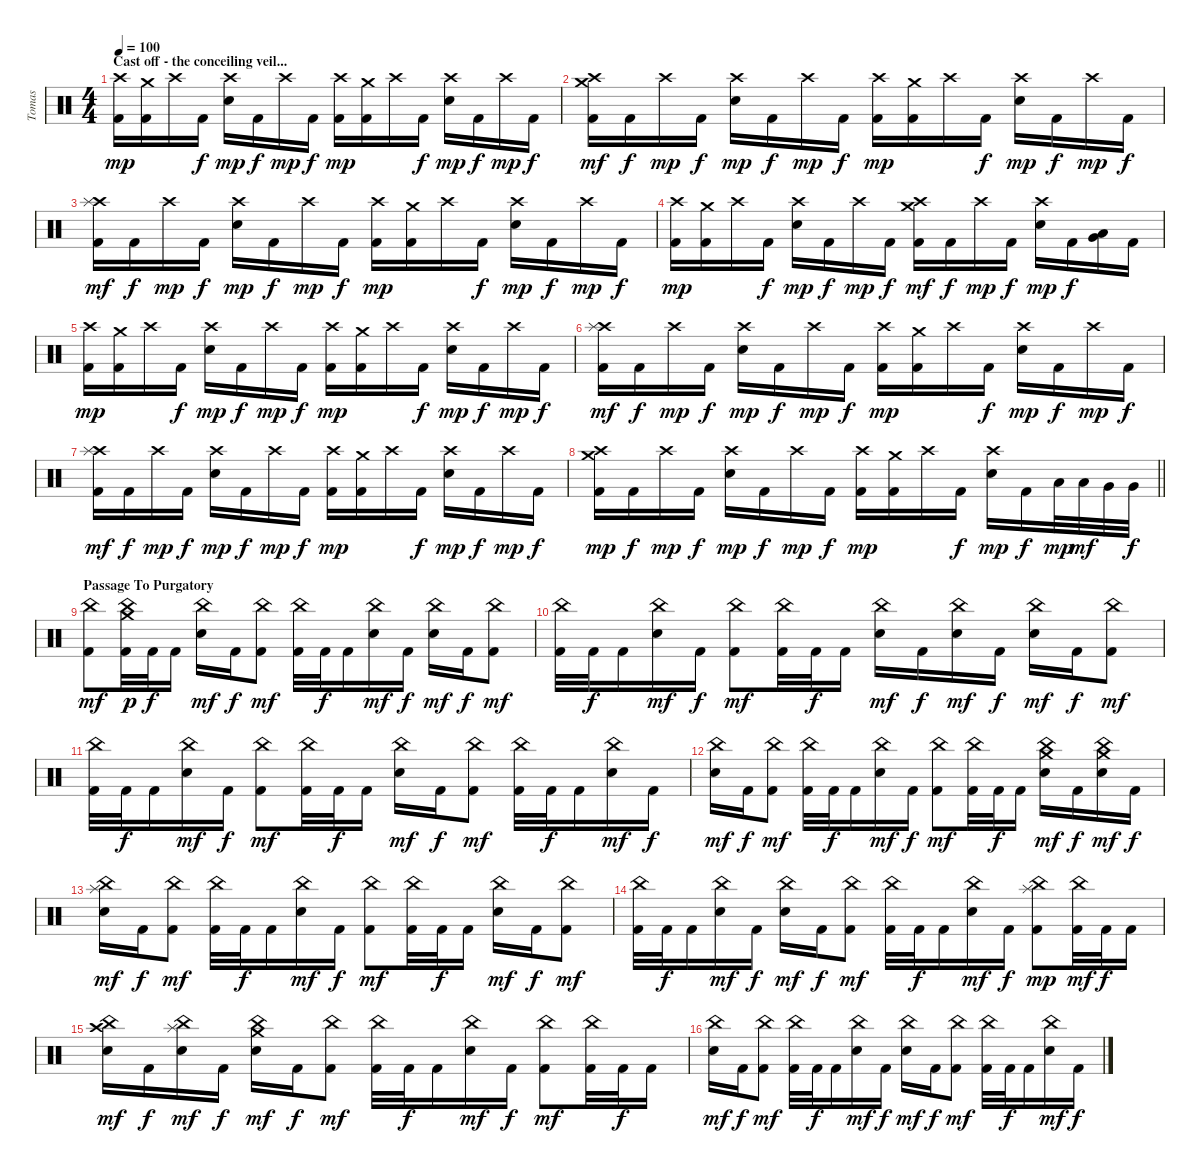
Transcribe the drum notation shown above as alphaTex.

\track ("Tomas" "Tomas") {instrument percussion}
\staff {score}
\articulation defaults
\ts (4 4)
\section ("" "Cast off - the conceiling veil...")
\tempo 100
\clef neutral
\ks c
("Crash high (hit)" "Kick (hit) 2").16{dy mp} ("Crash medium (hit)" "Kick (hit) 2").16 "Crash high (hit)".16 "Kick (hit) 2".16{dy f} ("Crash high (hit)" "Electric Snare (hit)").16{dy mp} "Kick (hit) 2".16{dy f} "Crash high (hit)".16{dy mp} "Kick (hit) 2".16{dy f} ("Crash high (hit)" "Kick (hit) 2").16{dy mp} ("Crash medium (hit)" "Kick (hit) 2").16 "Crash high (hit)".16 "Kick (hit) 2".16{dy f} ("Crash high (hit)" "Electric Snare (hit)").16{dy mp} "Kick (hit) 2".16{dy f} "Crash high (hit)".16{dy mp} "Kick (hit) 2".16{dy f} |
("Crash high (hit)" "Crash medium (hit)" "Kick (hit) 2").16{dy mf} "Kick (hit) 2".16{dy f} "Crash high (hit)".16{dy mp} "Kick (hit) 2".16{dy f} ("Crash high (hit)" "Electric Snare (hit)").16{dy mp} "Kick (hit) 2".16{dy f} "Crash high (hit)".16{dy mp} "Kick (hit) 2".16{dy f} ("Crash high (hit)" "Kick (hit) 2").16{dy mp} ("Crash medium (hit)" "Kick (hit) 2").16 "Crash high (hit)".16 "Kick (hit) 2".16{dy f} ("Crash high (hit)" "Electric Snare (hit)").16{dy mp} "Kick (hit) 2".16{dy f} "Crash high (hit)".16{dy mp} "Kick (hit) 2".16{dy f} |
("Crash high (hit)" "Splash (hit)" "Kick (hit) 2").16{dy mf} "Kick (hit) 2".16{dy f} "Crash high (hit)".16{dy mp} "Kick (hit) 2".16{dy f} ("Crash high (hit)" "Electric Snare (hit)").16{dy mp} "Kick (hit) 2".16{dy f} "Crash high (hit)".16{dy mp} "Kick (hit) 2".16{dy f} ("Crash high (hit)" "Kick (hit) 2").16{dy mp} ("Crash medium (hit)" "Kick (hit) 2").16 "Crash high (hit)".16 "Kick (hit) 2".16{dy f} ("Crash high (hit)" "Electric Snare (hit)").16{dy mp} "Kick (hit) 2".16{dy f} "Crash high (hit)".16{dy mp} "Kick (hit) 2".16{dy f} |
("Crash high (hit)" "Kick (hit) 2").16{dy mp} ("Crash medium (hit)" "Kick (hit) 2").16 "Crash high (hit)".16 "Kick (hit) 2".16{dy f} ("Crash high (hit)" "Electric Snare (hit)").16{dy mp} "Kick (hit) 2".16{dy f} "Crash high (hit)".16{dy mp} "Kick (hit) 2".16{dy f} ("Crash high (hit)" "Crash medium (hit)" "Kick (hit) 2").16{dy mf} "Kick (hit) 2".16{dy f} "Crash high (hit)".16{dy mp} "Kick (hit) 2".16{dy f} ("Crash high (hit)" "Electric Snare (hit)").16{dy mp} "Kick (hit) 2".16{dy f} ("Low Tom (hit)" "Very Low Tom (hit)").16 "Kick (hit) 2".16 |
("Crash high (hit)" "Kick (hit) 2").16{dy mp} ("Crash medium (hit)" "Kick (hit) 2").16 "Crash high (hit)".16 "Kick (hit) 2".16{dy f} ("Crash high (hit)" "Electric Snare (hit)").16{dy mp} "Kick (hit) 2".16{dy f} "Crash high (hit)".16{dy mp} "Kick (hit) 2".16{dy f} ("Crash high (hit)" "Kick (hit) 2").16{dy mp} ("Crash medium (hit)" "Kick (hit) 2").16 "Crash high (hit)".16 "Kick (hit) 2".16{dy f} ("Crash high (hit)" "Electric Snare (hit)").16{dy mp} "Kick (hit) 2".16{dy f} "Crash high (hit)".16{dy mp} "Kick (hit) 2".16{dy f} |
("Crash high (hit)" "Splash (hit)" "Kick (hit) 2").16{dy mf} "Kick (hit) 2".16{dy f} "Crash high (hit)".16{dy mp} "Kick (hit) 2".16{dy f} ("Crash high (hit)" "Electric Snare (hit)").16{dy mp} "Kick (hit) 2".16{dy f} "Crash high (hit)".16{dy mp} "Kick (hit) 2".16{dy f} ("Crash high (hit)" "Kick (hit) 2").16{dy mp} ("Crash medium (hit)" "Kick (hit) 2").16 "Crash high (hit)".16 "Kick (hit) 2".16{dy f} ("Crash high (hit)" "Electric Snare (hit)").16{dy mp} "Kick (hit) 2".16{dy f} "Crash high (hit)".16{dy mp} "Kick (hit) 2".16{dy f} |
("Crash high (hit)" "Splash (hit)" "Kick (hit) 2").16{dy mf} "Kick (hit) 2".16{dy f} "Crash high (hit)".16{dy mp} "Kick (hit) 2".16{dy f} ("Crash high (hit)" "Electric Snare (hit)").16{dy mp} "Kick (hit) 2".16{dy f} "Crash high (hit)".16{dy mp} "Kick (hit) 2".16{dy f} ("Crash high (hit)" "Kick (hit) 2").16{dy mp} ("Crash medium (hit)" "Kick (hit) 2").16 "Crash high (hit)".16 "Kick (hit) 2".16{dy f} ("Crash high (hit)" "Electric Snare (hit)").16{dy mp} "Kick (hit) 2".16{dy f} "Crash high (hit)".16{dy mp} "Kick (hit) 2".16{dy f} |
\barLineRight lightlight
("Crash high (hit)" "Crash medium (hit)" "Kick (hit) 2").16{dy mp} "Kick (hit) 2".16{dy f} "Crash high (hit)".16{dy mp} "Kick (hit) 2".16{dy f} ("Crash high (hit)" "Electric Snare (hit)").16{dy mp} "Kick (hit) 2".16{dy f} "Crash high (hit)".16{dy mp} "Kick (hit) 2".16{dy f} ("Crash high (hit)" "Kick (hit) 2").16{dy mp} ("Crash medium (hit)" "Kick (hit) 2").16 "Crash high (hit)".16 "Kick (hit) 2".16{dy f} ("Crash high (hit)" "Electric Snare (hit)").16{dy mp} "Kick (hit) 2".16{dy f} "Low Tom (hit)".32{dy mp} "Low Tom (hit)".32{dy mf} "Very Low Tom (hit)".32 "Very Low Tom (hit)".32{dy f} |
\section ("" "Passage To Purgatory")
("China (hit)" "Kick (hit) 2").8{dy mf} ("China (hit)" "Crash medium (hit)" "Kick (hit) 2").32{dy p} "Kick (hit) 2".32{dy f} "Kick (hit) 2".16 ("China (hit)" "Electric Snare (hit)").16{dy mf} "Kick (hit) 2".16{dy f} ("China (hit)" "Kick (hit) 2").8{dy mf} ("China (hit)" "Kick (hit) 2").32 "Kick (hit) 2".32{dy f} "Kick (hit) 2".16 ("China (hit)" "Electric Snare (hit)").16{dy mf} "Kick (hit) 2".16{dy f} ("China (hit)" "Electric Snare (hit)").16{dy mf} "Kick (hit) 2".16{dy f} ("China (hit)" "Kick (hit) 2").8{dy mf} |
("China (hit)" "Kick (hit) 2").32 "Kick (hit) 2".32{dy f} "Kick (hit) 2".16 ("China (hit)" "Electric Snare (hit)").16{dy mf} "Kick (hit) 2".16{dy f} ("China (hit)" "Kick (hit) 2").8{dy mf} ("China (hit)" "Kick (hit) 2").32 "Kick (hit) 2".32{dy f} "Kick (hit) 2".16 ("China (hit)" "Electric Snare (hit)").16{dy mf} "Kick (hit) 2".16{dy f} ("China (hit)" "Electric Snare (hit)").16{dy mf} "Kick (hit) 2".16{dy f} ("China (hit)" "Electric Snare (hit)").16{dy mf} "Kick (hit) 2".16{dy f} ("China (hit)" "Kick (hit) 2").8{dy mf} |
("China (hit)" "Kick (hit) 2").32 "Kick (hit) 2".32{dy f} "Kick (hit) 2".16 ("China (hit)" "Electric Snare (hit)").16{dy mf} "Kick (hit) 2".16{dy f} ("China (hit)" "Kick (hit) 2").8{dy mf} ("China (hit)" "Kick (hit) 2").32 "Kick (hit) 2".32{dy f} "Kick (hit) 2".16 ("China (hit)" "Electric Snare (hit)").16{dy mf} "Kick (hit) 2".16{dy f} ("China (hit)" "Kick (hit) 2").8{dy mf} ("China (hit)" "Kick (hit) 2").32 "Kick (hit) 2".32{dy f} "Kick (hit) 2".16 ("China (hit)" "Electric Snare (hit)").16{dy mf} "Kick (hit) 2".16{dy f} |
("China (hit)" "Electric Snare (hit)").16{dy mf} "Kick (hit) 2".16{dy f} ("China (hit)" "Kick (hit) 2").8{dy mf} ("China (hit)" "Kick (hit) 2").32 "Kick (hit) 2".32{dy f} "Kick (hit) 2".16 ("China (hit)" "Electric Snare (hit)").16{dy mf} "Kick (hit) 2".16{dy f} ("China (hit)" "Kick (hit) 2").8{dy mf} ("China (hit)" "Kick (hit) 2").32 "Kick (hit) 2".32{dy f} "Kick (hit) 2".16 ("China (hit)" "Crash medium (hit)" "Electric Snare (hit)").16{dy mf} "Kick (hit) 2".16{dy f} ("China (hit)" "Crash medium (hit)" "Electric Snare (hit)").16{dy mf} "Kick (hit) 2".16{dy f} |
("China (hit)" "Splash (hit)" "Electric Snare (hit)").16{dy mf} "Kick (hit) 2".16{dy f} ("China (hit)" "Kick (hit) 2").8{dy mf} ("China (hit)" "Kick (hit) 2").32 "Kick (hit) 2".32{dy f} "Kick (hit) 2".16 ("China (hit)" "Electric Snare (hit)").16{dy mf} "Kick (hit) 2".16{dy f} ("China (hit)" "Kick (hit) 2").8{dy mf} ("China (hit)" "Kick (hit) 2").32 "Kick (hit) 2".32{dy f} "Kick (hit) 2".16 ("China (hit)" "Electric Snare (hit)").16{dy mf} "Kick (hit) 2".16{dy f} ("China (hit)" "Kick (hit) 2").8{dy mf} |
("China (hit)" "Kick (hit) 2").32 "Kick (hit) 2".32{dy f} "Kick (hit) 2".16 ("China (hit)" "Electric Snare (hit)").16{dy mf} "Kick (hit) 2".16{dy f} ("China (hit)" "Electric Snare (hit)").16{dy mf} "Kick (hit) 2".16{dy f} ("China (hit)" "Kick (hit) 2").8{dy mf} ("China (hit)" "Kick (hit) 2").32 "Kick (hit) 2".32{dy f} "Kick (hit) 2".16 ("China (hit)" "Electric Snare (hit)").16{dy mf} "Kick (hit) 2".16{dy f} ("China (hit)" "Splash (hit)" "Kick (hit) 2").8{dy mp} ("China (hit)" "Kick (hit) 2").32{dy mf} "Kick (hit) 2".32{dy f} "Kick (hit) 2".16 |
("China (hit)" "Crash high (hit)" "Electric Snare (hit)").16{dy mf} "Kick (hit) 2".16{dy f} ("China (hit)" "Splash (hit)" "Electric Snare (hit)").16{dy mf} "Kick (hit) 2".16{dy f} ("China (hit)" "Crash medium (hit)" "Electric Snare (hit)").16{dy mf} "Kick (hit) 2".16{dy f} ("China (hit)" "Kick (hit) 2").8{dy mf} ("China (hit)" "Kick (hit) 2").32 "Kick (hit) 2".32{dy f} "Kick (hit) 2".16 ("China (hit)" "Electric Snare (hit)").16{dy mf} "Kick (hit) 2".16{dy f} ("China (hit)" "Kick (hit) 2").8{dy mf} ("China (hit)" "Kick (hit) 2").32 "Kick (hit) 2".32{dy f} "Kick (hit) 2".16 |
("China (hit)" "Electric Snare (hit)").16{dy mf} "Kick (hit) 2".16{dy f} ("China (hit)" "Kick (hit) 2").8{dy mf} ("China (hit)" "Kick (hit) 2").32 "Kick (hit) 2".32{dy f} "Kick (hit) 2".16 ("China (hit)" "Electric Snare (hit)").16{dy mf} "Kick (hit) 2".16{dy f} ("China (hit)" "Electric Snare (hit)").16{dy mf} "Kick (hit) 2".16{dy f} ("China (hit)" "Kick (hit) 2").8{dy mf} ("China (hit)" "Kick (hit) 2").32 "Kick (hit) 2".32{dy f} "Kick (hit) 2".16 ("China (hit)" "Electric Snare (hit)").16{dy mf} "Kick (hit) 2".16{dy f}
